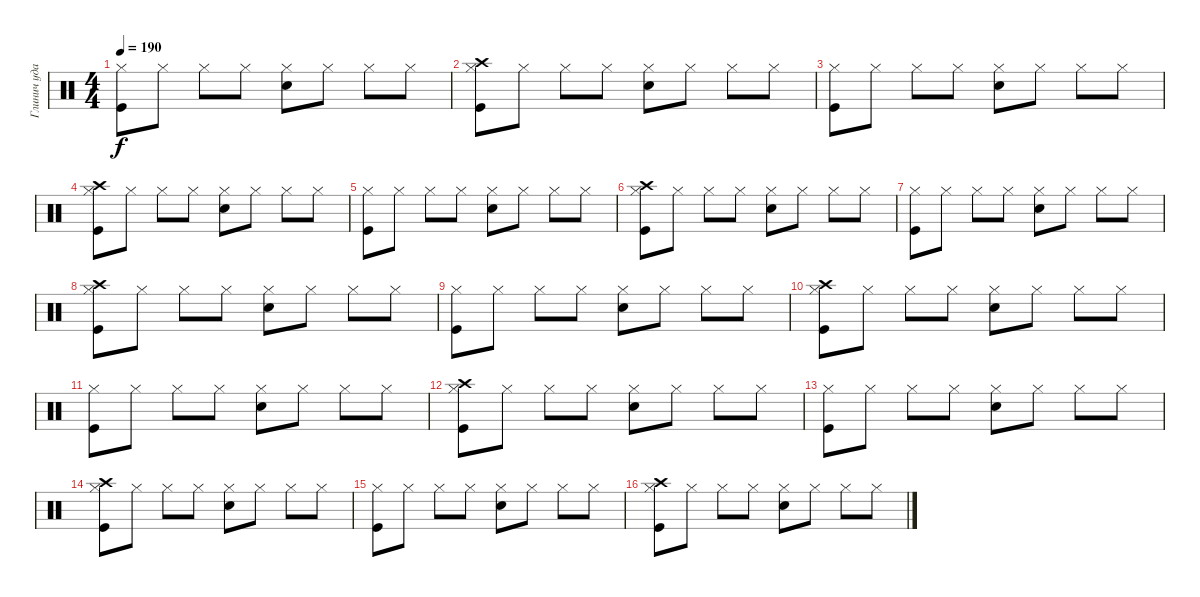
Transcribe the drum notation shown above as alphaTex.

\track ("Глинич ударные" "Глинич уда") {instrument percussion}
\staff {score}
\articulation defaults
\ts (4 4)
\tempo 190
\clef neutral
\ks c
("Hi-Hat (closed)" "Kick (hit)").8{dy f} "Hi-Hat (closed)".8 "Hi-Hat (closed)".8 "Hi-Hat (closed)".8 ("Hi-Hat (closed)" "Snare (hit) 2").8 "Hi-Hat (closed)".8 "Hi-Hat (closed)".8 "Hi-Hat (closed)".8 |
("Hi-Hat (closed)" "Kick (hit)" "Crash high (hit)").8 "Hi-Hat (closed)".8 "Hi-Hat (closed)".8 "Hi-Hat (closed)".8 ("Hi-Hat (closed)" "Snare (hit) 2").8 "Hi-Hat (closed)".8 "Hi-Hat (closed)".8 "Hi-Hat (closed)".8 |
("Hi-Hat (closed)" "Kick (hit)").8 "Hi-Hat (closed)".8 "Hi-Hat (closed)".8 "Hi-Hat (closed)".8 ("Hi-Hat (closed)" "Snare (hit) 2").8 "Hi-Hat (closed)".8 "Hi-Hat (closed)".8 "Hi-Hat (closed)".8 |
("Hi-Hat (closed)" "Kick (hit)" "Crash high (hit)").8 "Hi-Hat (closed)".8 "Hi-Hat (closed)".8 "Hi-Hat (closed)".8 ("Hi-Hat (closed)" "Snare (hit) 2").8 "Hi-Hat (closed)".8 "Hi-Hat (closed)".8 "Hi-Hat (closed)".8 |
("Hi-Hat (closed)" "Kick (hit)").8 "Hi-Hat (closed)".8 "Hi-Hat (closed)".8 "Hi-Hat (closed)".8 ("Hi-Hat (closed)" "Snare (hit) 2").8 "Hi-Hat (closed)".8 "Hi-Hat (closed)".8 "Hi-Hat (closed)".8 |
("Hi-Hat (closed)" "Kick (hit)" "Crash high (hit)").8 "Hi-Hat (closed)".8 "Hi-Hat (closed)".8 "Hi-Hat (closed)".8 ("Hi-Hat (closed)" "Snare (hit) 2").8 "Hi-Hat (closed)".8 "Hi-Hat (closed)".8 "Hi-Hat (closed)".8 |
("Hi-Hat (closed)" "Kick (hit)").8 "Hi-Hat (closed)".8 "Hi-Hat (closed)".8 "Hi-Hat (closed)".8 ("Hi-Hat (closed)" "Snare (hit) 2").8 "Hi-Hat (closed)".8 "Hi-Hat (closed)".8 "Hi-Hat (closed)".8 |
("Hi-Hat (closed)" "Kick (hit)" "Crash high (hit)").8 "Hi-Hat (closed)".8 "Hi-Hat (closed)".8 "Hi-Hat (closed)".8 ("Hi-Hat (closed)" "Snare (hit) 2").8 "Hi-Hat (closed)".8 "Hi-Hat (closed)".8 "Hi-Hat (closed)".8 |
("Hi-Hat (closed)" "Kick (hit)").8 "Hi-Hat (closed)".8 "Hi-Hat (closed)".8 "Hi-Hat (closed)".8 ("Hi-Hat (closed)" "Snare (hit) 2").8 "Hi-Hat (closed)".8 "Hi-Hat (closed)".8 "Hi-Hat (closed)".8 |
("Hi-Hat (closed)" "Kick (hit)" "Crash high (hit)").8 "Hi-Hat (closed)".8 "Hi-Hat (closed)".8 "Hi-Hat (closed)".8 ("Hi-Hat (closed)" "Snare (hit) 2").8 "Hi-Hat (closed)".8 "Hi-Hat (closed)".8 "Hi-Hat (closed)".8 |
("Hi-Hat (closed)" "Kick (hit)").8 "Hi-Hat (closed)".8 "Hi-Hat (closed)".8 "Hi-Hat (closed)".8 ("Hi-Hat (closed)" "Snare (hit) 2").8 "Hi-Hat (closed)".8 "Hi-Hat (closed)".8 "Hi-Hat (closed)".8 |
("Hi-Hat (closed)" "Kick (hit)" "Crash high (hit)").8 "Hi-Hat (closed)".8 "Hi-Hat (closed)".8 "Hi-Hat (closed)".8 ("Hi-Hat (closed)" "Snare (hit) 2").8 "Hi-Hat (closed)".8 "Hi-Hat (closed)".8 "Hi-Hat (closed)".8 |
("Hi-Hat (closed)" "Kick (hit)").8 "Hi-Hat (closed)".8 "Hi-Hat (closed)".8 "Hi-Hat (closed)".8 ("Hi-Hat (closed)" "Snare (hit) 2").8 "Hi-Hat (closed)".8 "Hi-Hat (closed)".8 "Hi-Hat (closed)".8 |
("Hi-Hat (closed)" "Kick (hit)" "Crash high (hit)").8 "Hi-Hat (closed)".8 "Hi-Hat (closed)".8 "Hi-Hat (closed)".8 ("Hi-Hat (closed)" "Snare (hit) 2").8 "Hi-Hat (closed)".8 "Hi-Hat (closed)".8 "Hi-Hat (closed)".8 |
("Hi-Hat (closed)" "Kick (hit)").8 "Hi-Hat (closed)".8 "Hi-Hat (closed)".8 "Hi-Hat (closed)".8 ("Hi-Hat (closed)" "Snare (hit) 2").8 "Hi-Hat (closed)".8 "Hi-Hat (closed)".8 "Hi-Hat (closed)".8 |
("Hi-Hat (closed)" "Kick (hit)" "Crash high (hit)").8 "Hi-Hat (closed)".8 "Hi-Hat (closed)".8 "Hi-Hat (closed)".8 ("Hi-Hat (closed)" "Snare (hit) 2").8 "Hi-Hat (closed)".8 "Hi-Hat (closed)".8 "Hi-Hat (closed)".8
